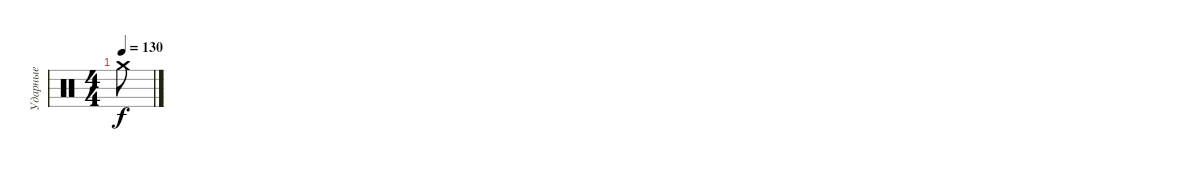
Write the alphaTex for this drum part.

\track ("Ударные" "Ударные") {instrument percussion}
\staff {score}
\articulation defaults
\ts (4 4)
\tempo 130
\clef neutral
\ks c "Crash medium (hit)".8{dy f}
